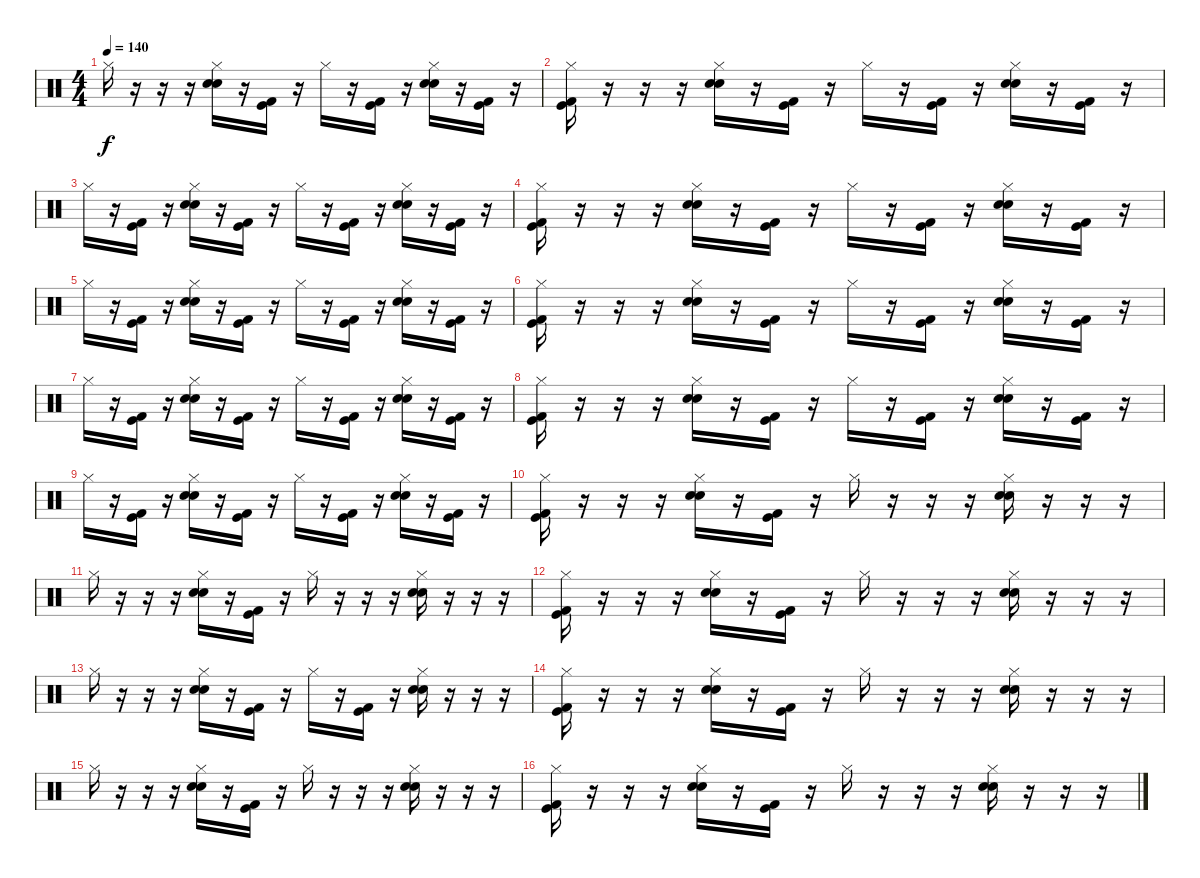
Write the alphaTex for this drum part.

\track "" {instrument percussion}
\staff {score}
\articulation defaults
\ts (4 4)
\tempo 140
\clef neutral
\ks c "Hi-Hat (closed)".16{dy f}
r.16 r.16 r.16 ("Hi-Hat (closed)" "Electric Snare (hit)" "Electric Snare (hit)").16 r.16 ("Kick (hit)" "Kick (hit) 2").16 r.16 "Hi-Hat (closed)".16 r.16 ("Kick (hit)" "Kick (hit) 2").16 r.16 ("Hi-Hat (closed)" "Electric Snare (hit)" "Electric Snare (hit)").16 r.16 ("Kick (hit)" "Kick (hit) 2").16 r.16 |
("Hi-Hat (closed)" "Kick (hit)" "Kick (hit) 2").16 r.16 r.16 r.16 ("Hi-Hat (closed)" "Electric Snare (hit)" "Electric Snare (hit)").16 r.16 ("Kick (hit)" "Kick (hit) 2").16 r.16 "Hi-Hat (closed)".16 r.16 ("Kick (hit)" "Kick (hit) 2").16 r.16 ("Hi-Hat (closed)" "Electric Snare (hit)" "Electric Snare (hit)").16 r.16 ("Kick (hit)" "Kick (hit) 2").16 r.16 |
"Hi-Hat (closed)".16 r.16 ("Kick (hit)" "Kick (hit) 2").16 r.16 ("Hi-Hat (closed)" "Electric Snare (hit)" "Electric Snare (hit)").16 r.16 ("Kick (hit)" "Kick (hit) 2").16 r.16 "Hi-Hat (closed)".16 r.16 ("Kick (hit)" "Kick (hit) 2").16 r.16 ("Hi-Hat (closed)" "Electric Snare (hit)" "Electric Snare (hit)").16 r.16 ("Kick (hit)" "Kick (hit) 2").16 r.16 |
("Hi-Hat (closed)" "Kick (hit)" "Kick (hit) 2").16 r.16 r.16 r.16 ("Hi-Hat (closed)" "Electric Snare (hit)" "Electric Snare (hit)").16 r.16 ("Kick (hit)" "Kick (hit) 2").16 r.16 "Hi-Hat (closed)".16 r.16 ("Kick (hit)" "Kick (hit) 2").16 r.16 ("Hi-Hat (closed)" "Electric Snare (hit)" "Electric Snare (hit)").16 r.16 ("Kick (hit)" "Kick (hit) 2").16 r.16 |
"Hi-Hat (closed)".16 r.16 ("Kick (hit)" "Kick (hit) 2").16 r.16 ("Hi-Hat (closed)" "Electric Snare (hit)" "Electric Snare (hit)").16 r.16 ("Kick (hit)" "Kick (hit) 2").16 r.16 "Hi-Hat (closed)".16 r.16 ("Kick (hit)" "Kick (hit) 2").16 r.16 ("Hi-Hat (closed)" "Electric Snare (hit)" "Electric Snare (hit)").16 r.16 ("Kick (hit)" "Kick (hit) 2").16 r.16 |
("Hi-Hat (closed)" "Kick (hit)" "Kick (hit) 2").16 r.16 r.16 r.16 ("Hi-Hat (closed)" "Electric Snare (hit)" "Electric Snare (hit)").16 r.16 ("Kick (hit)" "Kick (hit) 2").16 r.16 "Hi-Hat (closed)".16 r.16 ("Kick (hit)" "Kick (hit) 2").16 r.16 ("Hi-Hat (closed)" "Electric Snare (hit)" "Electric Snare (hit)").16 r.16 ("Kick (hit)" "Kick (hit) 2").16 r.16 |
"Hi-Hat (closed)".16 r.16 ("Kick (hit)" "Kick (hit) 2").16 r.16 ("Hi-Hat (closed)" "Electric Snare (hit)" "Electric Snare (hit)").16 r.16 ("Kick (hit)" "Kick (hit) 2").16 r.16 "Hi-Hat (closed)".16 r.16 ("Kick (hit)" "Kick (hit) 2").16 r.16 ("Hi-Hat (closed)" "Electric Snare (hit)" "Electric Snare (hit)").16 r.16 ("Kick (hit)" "Kick (hit) 2").16 r.16 |
("Hi-Hat (closed)" "Kick (hit)" "Kick (hit) 2").16 r.16 r.16 r.16 ("Hi-Hat (closed)" "Electric Snare (hit)" "Electric Snare (hit)").16 r.16 ("Kick (hit)" "Kick (hit) 2").16 r.16 "Hi-Hat (closed)".16 r.16 ("Kick (hit)" "Kick (hit) 2").16 r.16 ("Hi-Hat (closed)" "Electric Snare (hit)" "Electric Snare (hit)").16 r.16 ("Kick (hit)" "Kick (hit) 2").16 r.16 |
"Hi-Hat (closed)".16 r.16 ("Kick (hit)" "Kick (hit) 2").16 r.16 ("Hi-Hat (closed)" "Electric Snare (hit)" "Electric Snare (hit)").16 r.16 ("Kick (hit)" "Kick (hit) 2").16 r.16 "Hi-Hat (closed)".16 r.16 ("Kick (hit)" "Kick (hit) 2").16 r.16 ("Hi-Hat (closed)" "Electric Snare (hit)" "Electric Snare (hit)").16 r.16 ("Kick (hit)" "Kick (hit) 2").16 r.16 |
("Hi-Hat (closed)" "Kick (hit)" "Kick (hit) 2").16 r.16 r.16 r.16 ("Hi-Hat (closed)" "Electric Snare (hit)" "Electric Snare (hit)").16 r.16 ("Kick (hit)" "Kick (hit) 2").16 r.16 "Hi-Hat (closed)".16 r.16 r.16 r.16 ("Hi-Hat (closed)" "Electric Snare (hit)" "Electric Snare (hit)").16 r.16 r.16 r.16 |
"Hi-Hat (closed)".16 r.16 r.16 r.16 ("Hi-Hat (closed)" "Electric Snare (hit)" "Electric Snare (hit)").16 r.16 ("Kick (hit)" "Kick (hit) 2").16 r.16 "Hi-Hat (closed)".16 r.16 r.16 r.16 ("Hi-Hat (closed)" "Electric Snare (hit)" "Electric Snare (hit)").16 r.16 r.16 r.16 |
("Hi-Hat (closed)" "Kick (hit)" "Kick (hit) 2").16 r.16 r.16 r.16 ("Hi-Hat (closed)" "Electric Snare (hit)" "Electric Snare (hit)").16 r.16 ("Kick (hit)" "Kick (hit) 2").16 r.16 "Hi-Hat (closed)".16 r.16 r.16 r.16 ("Hi-Hat (closed)" "Electric Snare (hit)" "Electric Snare (hit)").16 r.16 r.16 r.16 |
"Hi-Hat (closed)".16 r.16 r.16 r.16 ("Hi-Hat (closed)" "Electric Snare (hit)" "Electric Snare (hit)").16 r.16 ("Kick (hit)" "Kick (hit) 2").16 r.16 "Hi-Hat (closed)".16 r.16 ("Kick (hit)" "Kick (hit) 2").16 r.16 ("Hi-Hat (closed)" "Electric Snare (hit)" "Electric Snare (hit)").16 r.16 r.16 r.16 |
("Hi-Hat (closed)" "Kick (hit)" "Kick (hit) 2").16 r.16 r.16 r.16 ("Hi-Hat (closed)" "Electric Snare (hit)" "Electric Snare (hit)").16 r.16 ("Kick (hit)" "Kick (hit) 2").16 r.16 "Hi-Hat (closed)".16 r.16 r.16 r.16 ("Hi-Hat (closed)" "Electric Snare (hit)" "Electric Snare (hit)").16 r.16 r.16 r.16 |
"Hi-Hat (closed)".16 r.16 r.16 r.16 ("Hi-Hat (closed)" "Electric Snare (hit)" "Electric Snare (hit)").16 r.16 ("Kick (hit)" "Kick (hit) 2").16 r.16 "Hi-Hat (closed)".16 r.16 r.16 r.16 ("Hi-Hat (closed)" "Electric Snare (hit)" "Electric Snare (hit)").16 r.16 r.16 r.16 |
("Hi-Hat (closed)" "Kick (hit)" "Kick (hit) 2").16 r.16 r.16 r.16 ("Hi-Hat (closed)" "Electric Snare (hit)" "Electric Snare (hit)").16 r.16 ("Kick (hit)" "Kick (hit) 2").16 r.16 "Hi-Hat (closed)".16 r.16 r.16 r.16 ("Hi-Hat (closed)" "Electric Snare (hit)" "Electric Snare (hit)").16 r.16 r.16 r.16
